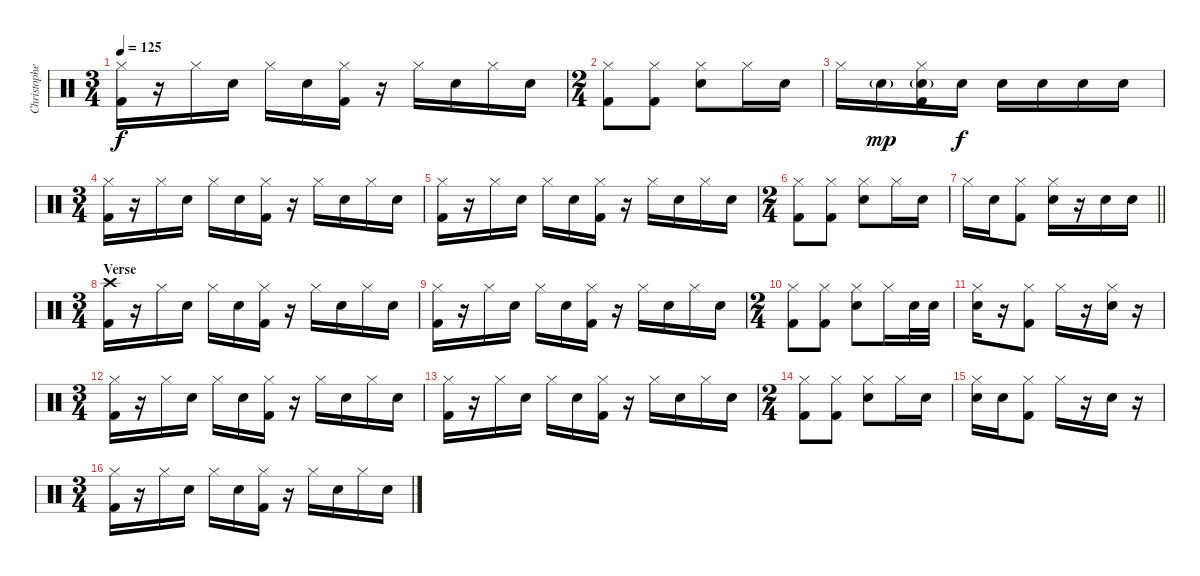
\track ("Christopher - Drums" "Christophe") {instrument percussion}
\staff {score}
\articulation defaults
\ts (3 4)
\tempo 125
\clef neutral
\ks c
("Hi-Hat (closed)" "Kick (hit) 2").16{dy f} r.16 "Hi-Hat (closed)".16 "Electric Snare (hit)".16 "Hi-Hat (closed)".16 "Electric Snare (hit)".16 ("Hi-Hat (closed)" "Kick (hit) 2").16 r.16 "Hi-Hat (closed)".16 "Electric Snare (hit)".16 "Hi-Hat (closed)".16 "Electric Snare (hit)".16 |
\ts (2 4)
("Hi-Hat (closed)" "Kick (hit) 2").8 ("Hi-Hat (closed)" "Kick (hit) 2").8 ("Hi-Hat (closed)" "Electric Snare (hit)").8 "Hi-Hat (closed)".16 "Electric Snare (hit)".16 |
"Hi-Hat (closed)".16 "Electric Snare (hit)"{g}.16{dy mp} ("Hi-Hat (closed)" "Electric Snare (hit)"{g} "Kick (hit) 2").16 "Electric Snare (hit)".16{dy f} "Electric Snare (hit)".16 "Electric Snare (hit)".16 "Electric Snare (hit)".16 "Electric Snare (hit)".16 |
\ts (3 4)
("Hi-Hat (closed)" "Kick (hit) 2").16 r.16 "Hi-Hat (closed)".16 "Electric Snare (hit)".16 "Hi-Hat (closed)".16 "Electric Snare (hit)".16 ("Hi-Hat (closed)" "Kick (hit) 2").16 r.16 "Hi-Hat (closed)".16 "Electric Snare (hit)".16 "Hi-Hat (closed)".16 "Electric Snare (hit)".16 |
("Hi-Hat (closed)" "Kick (hit) 2").16 r.16 "Hi-Hat (closed)".16 "Electric Snare (hit)".16 "Hi-Hat (closed)".16 "Electric Snare (hit)".16 ("Hi-Hat (closed)" "Kick (hit) 2").16 r.16 "Hi-Hat (closed)".16 "Electric Snare (hit)".16 "Hi-Hat (closed)".16 "Electric Snare (hit)".16 |
\ts (2 4)
("Hi-Hat (closed)" "Kick (hit) 2").8 ("Hi-Hat (closed)" "Kick (hit) 2").8 ("Hi-Hat (closed)" "Electric Snare (hit)").8 "Hi-Hat (closed)".16 "Electric Snare (hit)".16 |
\barLineRight lightlight "Hi-Hat (closed)".16 "Electric Snare (hit)".16
("Hi-Hat (closed)" "Kick (hit) 2").8 ("Hi-Hat (closed)" "Electric Snare (hit)").16 r.16 "Electric Snare (hit)".16 "Electric Snare (hit)".16 |
\ts (3 4)
\section ("" "Verse")
("Crash high (hit)" "Kick (hit) 2").16 r.16 "Hi-Hat (closed)".16 "Electric Snare (hit)".16 "Hi-Hat (closed)".16 "Electric Snare (hit)".16 ("Hi-Hat (closed)" "Kick (hit) 2").16 r.16 "Hi-Hat (closed)".16 "Electric Snare (hit)".16 "Hi-Hat (closed)".16 "Electric Snare (hit)".16 |
("Hi-Hat (closed)" "Kick (hit) 2").16 r.16 "Hi-Hat (closed)".16 "Electric Snare (hit)".16 "Hi-Hat (closed)".16 "Electric Snare (hit)".16 ("Hi-Hat (closed)" "Kick (hit) 2").16 r.16 "Hi-Hat (closed)".16 "Electric Snare (hit)".16 "Hi-Hat (closed)".16 "Electric Snare (hit)".16 |
\ts (2 4)
("Hi-Hat (closed)" "Kick (hit) 2").8 ("Hi-Hat (closed)" "Kick (hit) 2").8 ("Hi-Hat (closed)" "Electric Snare (hit)").8 "Hi-Hat (closed)".16 "Electric Snare (hit)".32 "Electric Snare (hit)".32 |
("Hi-Hat (closed)" "Electric Snare (hit)").16 r.16 ("Hi-Hat (closed)" "Kick (hit) 2").8 "Hi-Hat (closed)".16 r.16 ("Hi-Hat (closed)" "Electric Snare (hit)").16 r.16 |
\ts (3 4)
("Hi-Hat (closed)" "Kick (hit) 2").16 r.16 "Hi-Hat (closed)".16 "Electric Snare (hit)".16 "Hi-Hat (closed)".16 "Electric Snare (hit)".16 ("Hi-Hat (closed)" "Kick (hit) 2").16 r.16 "Hi-Hat (closed)".16 "Electric Snare (hit)".16 "Hi-Hat (closed)".16 "Electric Snare (hit)".16 |
("Hi-Hat (closed)" "Kick (hit) 2").16 r.16 "Hi-Hat (closed)".16 "Electric Snare (hit)".16 "Hi-Hat (closed)".16 "Electric Snare (hit)".16 ("Hi-Hat (closed)" "Kick (hit) 2").16 r.16 "Hi-Hat (closed)".16 "Electric Snare (hit)".16 "Hi-Hat (closed)".16 "Electric Snare (hit)".16 |
\ts (2 4)
("Hi-Hat (closed)" "Kick (hit) 2").8 ("Hi-Hat (closed)" "Kick (hit) 2").8 ("Hi-Hat (closed)" "Electric Snare (hit)").8 "Hi-Hat (closed)".16 "Electric Snare (hit)".16 |
("Hi-Hat (closed)" "Electric Snare (hit)").16 "Electric Snare (hit)".16 ("Hi-Hat (closed)" "Kick (hit) 2").8 "Hi-Hat (closed)".16 r.16 "Electric Snare (hit)".16 r.16 |
\ts (3 4)
("Hi-Hat (closed)" "Kick (hit) 2").16 r.16 "Hi-Hat (closed)".16 "Electric Snare (hit)".16 "Hi-Hat (closed)".16 "Electric Snare (hit)".16 ("Hi-Hat (closed)" "Kick (hit) 2").16 r.16 "Hi-Hat (closed)".16 "Electric Snare (hit)".16 "Hi-Hat (closed)".16 "Electric Snare (hit)".16
